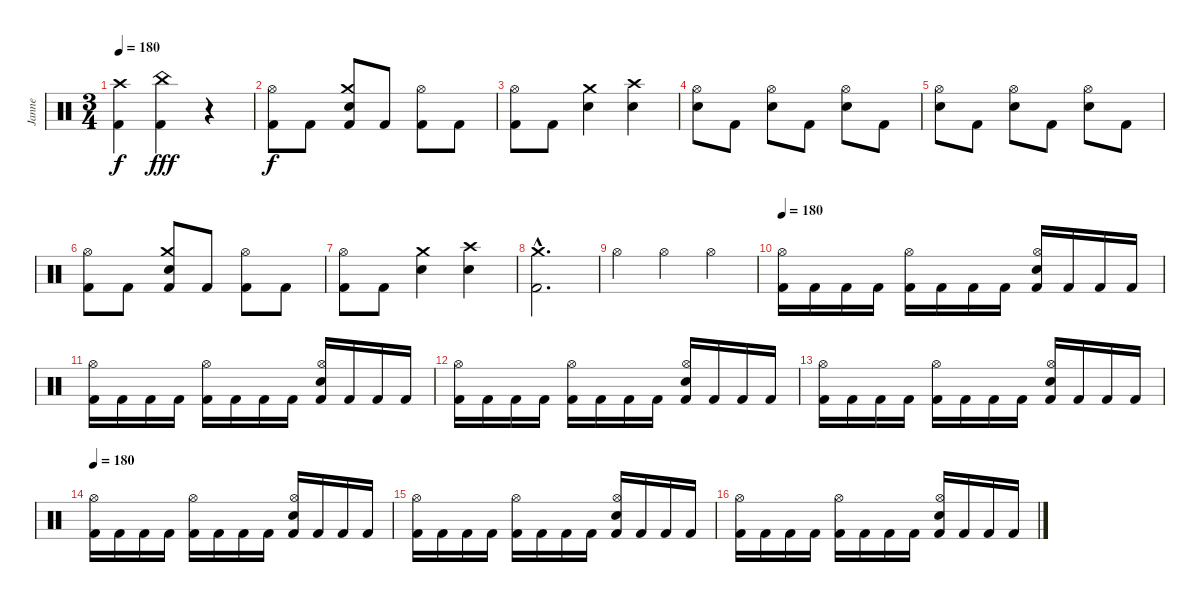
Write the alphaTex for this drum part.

\track ("Janne" "Janne") {instrument percussion}
\staff {score}
\articulation defaults
\ts (3 4)
\tempo 180
\clef neutral
\ks c
("Crash high (hit)" "Kick (hit) 2").4{dy f} ("China (hit)" "Kick (hit) 2").4{dy fff} r.4 |
("Hi-Hat (open)" "Kick (hit) 2").8{dy f} "Kick (hit) 2".8 ("Crash medium (hit)" "Electric Snare (hit)" "Kick (hit) 2").8 "Kick (hit) 2".8 ("Hi-Hat (open)" "Kick (hit) 2").8 "Kick (hit) 2".8 |
("Hi-Hat (open)" "Kick (hit) 2").8 "Kick (hit) 2".8 ("Crash medium (hit)" "Electric Snare (hit)").4 ("Crash high (hit)" "Electric Snare (hit)").4 |
("Hi-Hat (open)" "Electric Snare (hit)").8 "Kick (hit) 2".8 ("Hi-Hat (open)" "Electric Snare (hit)").8 "Kick (hit) 2".8 ("Hi-Hat (open)" "Electric Snare (hit)").8 "Kick (hit) 2".8 |
("Hi-Hat (open)" "Electric Snare (hit)").8 "Kick (hit) 2".8 ("Hi-Hat (open)" "Electric Snare (hit)").8 "Kick (hit) 2".8 ("Hi-Hat (open)" "Electric Snare (hit)").8 "Kick (hit) 2".8 |
("Hi-Hat (open)" "Kick (hit) 2").8 "Kick (hit) 2".8 ("Crash medium (hit)" "Electric Snare (hit)" "Kick (hit) 2").8 "Kick (hit) 2".8 ("Hi-Hat (open)" "Kick (hit) 2").8 "Kick (hit) 2".8 |
("Hi-Hat (open)" "Kick (hit) 2").8 "Kick (hit) 2".8 ("Crash medium (hit)" "Electric Snare (hit)").4 ("Crash high (hit)" "Electric Snare (hit)").4 |
("Crash medium (hit)"{hac} "Kick (hit) 2"{hac}).2{d} |
"Hi-Hat (open)".4 "Hi-Hat (open)".4 "Hi-Hat (open)".4 |
\tempo 180
("Hi-Hat (open)" "Kick (hit) 2").16 "Kick (hit) 2".16 "Kick (hit) 2".16 "Kick (hit) 2".16 ("Hi-Hat (open)" "Kick (hit) 2").16 "Kick (hit) 2".16 "Kick (hit) 2".16 "Kick (hit) 2".16 ("Hi-Hat (open)" "Electric Snare (hit)" "Kick (hit) 2").16 "Kick (hit) 2".16 "Kick (hit) 2".16 "Kick (hit) 2".16 |
("Hi-Hat (open)" "Kick (hit) 2").16 "Kick (hit) 2".16 "Kick (hit) 2".16 "Kick (hit) 2".16 ("Hi-Hat (open)" "Kick (hit) 2").16 "Kick (hit) 2".16 "Kick (hit) 2".16 "Kick (hit) 2".16 ("Hi-Hat (open)" "Electric Snare (hit)" "Kick (hit) 2").16 "Kick (hit) 2".16 "Kick (hit) 2".16 "Kick (hit) 2".16 |
("Hi-Hat (open)" "Kick (hit) 2").16 "Kick (hit) 2".16 "Kick (hit) 2".16 "Kick (hit) 2".16 ("Hi-Hat (open)" "Kick (hit) 2").16 "Kick (hit) 2".16 "Kick (hit) 2".16 "Kick (hit) 2".16 ("Hi-Hat (open)" "Electric Snare (hit)" "Kick (hit) 2").16 "Kick (hit) 2".16 "Kick (hit) 2".16 "Kick (hit) 2".16 |
("Hi-Hat (open)" "Kick (hit) 2").16 "Kick (hit) 2".16 "Kick (hit) 2".16 "Kick (hit) 2".16 ("Hi-Hat (open)" "Kick (hit) 2").16 "Kick (hit) 2".16 "Kick (hit) 2".16 "Kick (hit) 2".16 ("Hi-Hat (open)" "Electric Snare (hit)" "Kick (hit) 2").16 "Kick (hit) 2".16 "Kick (hit) 2".16 "Kick (hit) 2".16 |
\tempo 180
("Hi-Hat (open)" "Kick (hit) 2").16 "Kick (hit) 2".16 "Kick (hit) 2".16 "Kick (hit) 2".16 ("Hi-Hat (open)" "Kick (hit) 2").16 "Kick (hit) 2".16 "Kick (hit) 2".16 "Kick (hit) 2".16 ("Hi-Hat (open)" "Electric Snare (hit)" "Kick (hit) 2").16 "Kick (hit) 2".16 "Kick (hit) 2".16 "Kick (hit) 2".16 |
("Hi-Hat (open)" "Kick (hit) 2").16 "Kick (hit) 2".16 "Kick (hit) 2".16 "Kick (hit) 2".16 ("Hi-Hat (open)" "Kick (hit) 2").16 "Kick (hit) 2".16 "Kick (hit) 2".16 "Kick (hit) 2".16 ("Hi-Hat (open)" "Electric Snare (hit)" "Kick (hit) 2").16 "Kick (hit) 2".16 "Kick (hit) 2".16 "Kick (hit) 2".16 |
("Hi-Hat (open)" "Kick (hit) 2").16 "Kick (hit) 2".16 "Kick (hit) 2".16 "Kick (hit) 2".16 ("Hi-Hat (open)" "Kick (hit) 2").16 "Kick (hit) 2".16 "Kick (hit) 2".16 "Kick (hit) 2".16 ("Hi-Hat (open)" "Electric Snare (hit)" "Kick (hit) 2").16 "Kick (hit) 2".16 "Kick (hit) 2".16 "Kick (hit) 2".16
